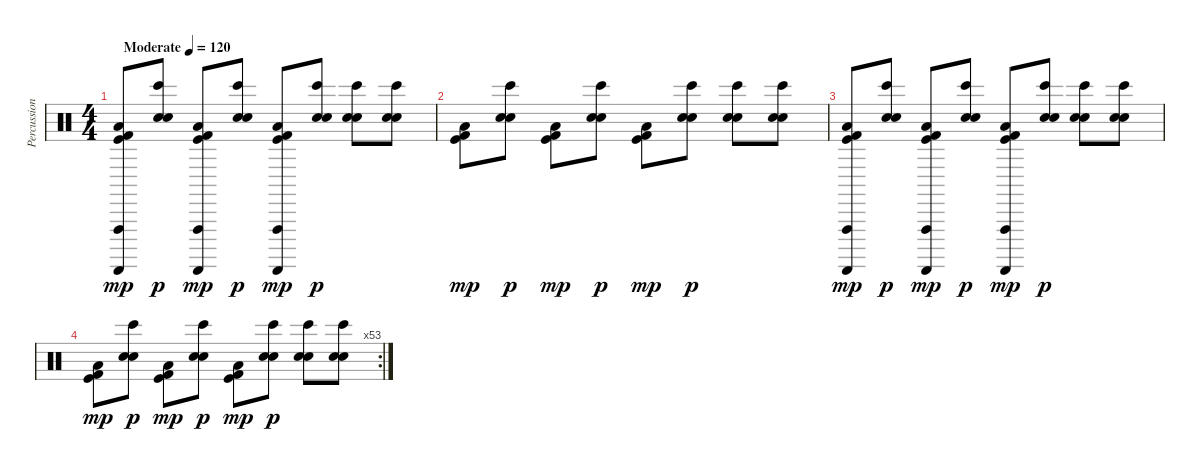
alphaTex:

\track ("Percussion" "Percussion") {instrument percussion}
\staff {score}
\articulation defaults
\ts (4 4)
\tempo (120 "Moderate")
\clef neutral
\ks c
("Vibraslap (hit)" "Guiro (scrap-return)" "Kick (hit)" "Low Floor Tom (hit)" "Kick (hit) 2").8{dy mp} ("Bongo High (hit)" "Electric Snare (hit)" "Hand Clap (hit)").8{dy p} ("Vibraslap (hit)" "Guiro (scrap-return)" "Kick (hit)" "Low Floor Tom (hit)" "Kick (hit) 2").8{dy mp} ("Bongo High (hit)" "Electric Snare (hit)" "Hand Clap (hit)").8{dy p} ("Vibraslap (hit)" "Guiro (scrap-return)" "Kick (hit)" "Low Floor Tom (hit)" "Kick (hit) 2").8{dy mp} ("Bongo High (hit)" "Electric Snare (hit)" "Hand Clap (hit)").8{dy p} ("Bongo High (hit)" "Electric Snare (hit)" "Hand Clap (hit)").8 ("Bongo High (hit)" "Electric Snare (hit)" "Hand Clap (hit)").8 |
("Kick (hit)" "Low Floor Tom (hit)" "Kick (hit) 2").8{dy mp} ("Bongo High (hit)" "Electric Snare (hit)" "Hand Clap (hit)").8{dy p} ("Kick (hit)" "Low Floor Tom (hit)" "Kick (hit) 2").8{dy mp} ("Bongo High (hit)" "Electric Snare (hit)" "Hand Clap (hit)").8{dy p} ("Kick (hit)" "Low Floor Tom (hit)" "Kick (hit) 2").8{dy mp} ("Bongo High (hit)" "Electric Snare (hit)" "Hand Clap (hit)").8{dy p} ("Bongo High (hit)" "Electric Snare (hit)" "Hand Clap (hit)").8 ("Bongo High (hit)" "Electric Snare (hit)" "Hand Clap (hit)").8 |
("Vibraslap (hit)" "Guiro (scrap-return)" "Kick (hit)" "Low Floor Tom (hit)" "Kick (hit) 2").8{dy mp} ("Bongo High (hit)" "Electric Snare (hit)" "Hand Clap (hit)").8{dy p} ("Vibraslap (hit)" "Guiro (scrap-return)" "Kick (hit)" "Low Floor Tom (hit)" "Kick (hit) 2").8{dy mp} ("Bongo High (hit)" "Electric Snare (hit)" "Hand Clap (hit)").8{dy p} ("Vibraslap (hit)" "Guiro (scrap-return)" "Kick (hit)" "Low Floor Tom (hit)" "Kick (hit) 2").8{dy mp} ("Bongo High (hit)" "Electric Snare (hit)" "Hand Clap (hit)").8{dy p} ("Bongo High (hit)" "Electric Snare (hit)" "Hand Clap (hit)").8 ("Bongo High (hit)" "Electric Snare (hit)" "Hand Clap (hit)").8 |
\rc 53
("Kick (hit)" "Low Floor Tom (hit)" "Kick (hit) 2").8{dy mp} ("Bongo High (hit)" "Electric Snare (hit)" "Hand Clap (hit)").8{dy p} ("Kick (hit)" "Low Floor Tom (hit)" "Kick (hit) 2").8{dy mp} ("Bongo High (hit)" "Electric Snare (hit)" "Hand Clap (hit)").8{dy p} ("Kick (hit)" "Low Floor Tom (hit)" "Kick (hit) 2").8{dy mp} ("Bongo High (hit)" "Electric Snare (hit)" "Hand Clap (hit)").8{dy p} ("Bongo High (hit)" "Electric Snare (hit)" "Hand Clap (hit)").8 ("Bongo High (hit)" "Electric Snare (hit)" "Hand Clap (hit)").8
